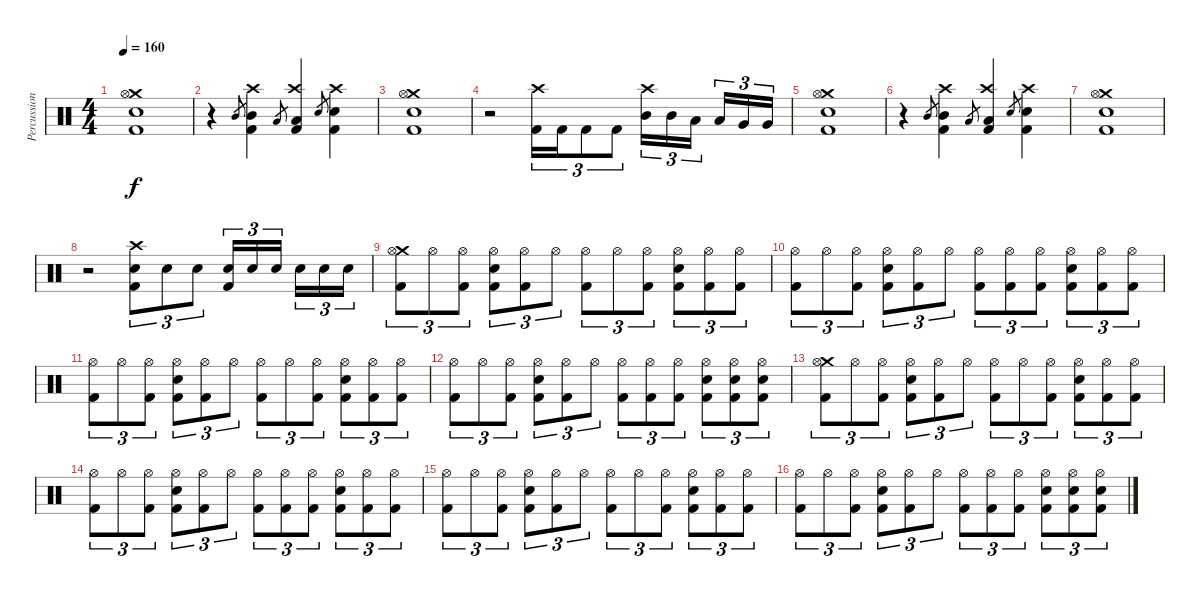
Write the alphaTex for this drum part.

\track ("Percussion" "Percussion") {instrument percussion}
\staff {score}
\articulation defaults
\ts (4 4)
\tempo 160
\clef neutral
\ks c
("Crash medium (hit)" "Hi-Hat (open)" "Electric Snare (hit)" "Kick (hit) 2").1{dy f} |
r.4 "Mid Tom (hit)".8{gr} ("Crash high (hit)" "Mid Tom (hit)" "Kick (hit) 2").4 "Low Tom (hit)".8{gr} ("Crash high (hit)" "Low Tom (hit)" "Kick (hit) 2").4 "Electric Snare (hit)".8{gr} ("Crash high (hit)" "Electric Snare (hit)" "Kick (hit) 2").4 |
("Crash medium (hit)" "Hi-Hat (open)" "Electric Snare (hit)" "Kick (hit) 2").1 |
r.2 ("Crash high (hit)" "Kick (hit) 2").16{tu (3 2)} "Kick (hit) 2".16{tu (3 2)} "Kick (hit) 2".8{tu (3 2)} "Kick (hit) 2".8{tu (3 2)} ("Crash high (hit)" "Mid Tom (hit)").16{tu (3 2)} "Mid Tom (hit)".16{tu (3 2)} "Low Tom (hit)".16{tu (3 2)} "Low Tom (hit)".16{tu (3 2)} "Very Low Tom (hit)".16{tu (3 2)} "Very Low Tom (hit)".16{tu (3 2)} |
("Crash medium (hit)" "Hi-Hat (open)" "Electric Snare (hit)" "Kick (hit) 2").1 |
r.4 "Mid Tom (hit)".8{gr} ("Crash high (hit)" "Mid Tom (hit)" "Kick (hit) 2").4 "Low Tom (hit)".8{gr} ("Crash high (hit)" "Low Tom (hit)" "Kick (hit) 2").4 "Electric Snare (hit)".8{gr} ("Crash high (hit)" "Electric Snare (hit)" "Kick (hit) 2").4 |
("Crash medium (hit)" "Hi-Hat (open)" "Electric Snare (hit)" "Kick (hit) 2").1 |
r.2 ("Crash high (hit)" "Electric Snare (hit)" "Kick (hit) 2").8{tu (3 2)} "Electric Snare (hit)".8{tu (3 2)} "Electric Snare (hit)".8{tu (3 2)} ("Electric Snare (hit)" "Kick (hit) 2").16{tu (3 2)} "Electric Snare (hit)".16{tu (3 2)} "Electric Snare (hit)".16{tu (3 2)} "Electric Snare (hit)".16{tu (3 2)} "Electric Snare (hit)".16{tu (3 2)} "Electric Snare (hit)".16{tu (3 2)} |
("Crash medium (hit)" "Hi-Hat (open)" "Kick (hit) 2").8{tu (3 2)} "Hi-Hat (open)".8{tu (3 2)} ("Hi-Hat (open)" "Kick (hit) 2").8{tu (3 2)} ("Hi-Hat (open)" "Electric Snare (hit)" "Kick (hit) 2").8{tu (3 2)} ("Hi-Hat (open)" "Kick (hit) 2").8{tu (3 2)} "Hi-Hat (open)".8{tu (3 2)} ("Hi-Hat (open)" "Kick (hit) 2").8{tu (3 2)} "Hi-Hat (open)".8{tu (3 2)} ("Hi-Hat (open)" "Kick (hit) 2").8{tu (3 2)} ("Hi-Hat (open)" "Electric Snare (hit)" "Kick (hit) 2").8{tu (3 2)} ("Hi-Hat (open)" "Kick (hit) 2").8{tu (3 2)} ("Hi-Hat (open)" "Kick (hit) 2").8{tu (3 2)} |
("Hi-Hat (open)" "Kick (hit) 2").8{tu (3 2)} "Hi-Hat (open)".8{tu (3 2)} ("Hi-Hat (open)" "Kick (hit) 2").8{tu (3 2)} ("Hi-Hat (open)" "Electric Snare (hit)" "Kick (hit) 2").8{tu (3 2)} ("Hi-Hat (open)" "Kick (hit) 2").8{tu (3 2)} "Hi-Hat (open)".8{tu (3 2)} ("Hi-Hat (open)" "Kick (hit) 2").8{tu (3 2)} ("Hi-Hat (open)" "Kick (hit) 2").8{tu (3 2)} ("Hi-Hat (open)" "Kick (hit) 2").8{tu (3 2)} ("Hi-Hat (open)" "Electric Snare (hit)" "Kick (hit) 2").8{tu (3 2)} ("Hi-Hat (open)" "Kick (hit) 2").8{tu (3 2)} ("Hi-Hat (open)" "Kick (hit) 2").8{tu (3 2)} |
("Hi-Hat (open)" "Kick (hit) 2").8{tu (3 2)} "Hi-Hat (open)".8{tu (3 2)} ("Hi-Hat (open)" "Kick (hit) 2").8{tu (3 2)} ("Hi-Hat (open)" "Electric Snare (hit)" "Kick (hit) 2").8{tu (3 2)} ("Hi-Hat (open)" "Kick (hit) 2").8{tu (3 2)} "Hi-Hat (open)".8{tu (3 2)} ("Hi-Hat (open)" "Kick (hit) 2").8{tu (3 2)} "Hi-Hat (open)".8{tu (3 2)} ("Hi-Hat (open)" "Kick (hit) 2").8{tu (3 2)} ("Hi-Hat (open)" "Electric Snare (hit)" "Kick (hit) 2").8{tu (3 2)} ("Hi-Hat (open)" "Kick (hit) 2").8{tu (3 2)} ("Hi-Hat (open)" "Kick (hit) 2").8{tu (3 2)} |
("Hi-Hat (open)" "Kick (hit) 2").8{tu (3 2)} "Hi-Hat (open)".8{tu (3 2)} ("Hi-Hat (open)" "Kick (hit) 2").8{tu (3 2)} ("Hi-Hat (open)" "Electric Snare (hit)" "Kick (hit) 2").8{tu (3 2)} ("Hi-Hat (open)" "Kick (hit) 2").8{tu (3 2)} "Hi-Hat (open)".8{tu (3 2)} ("Hi-Hat (open)" "Kick (hit) 2").8{tu (3 2)} ("Hi-Hat (open)" "Kick (hit) 2").8{tu (3 2)} ("Hi-Hat (open)" "Kick (hit) 2").8{tu (3 2)} ("Hi-Hat (open)" "Electric Snare (hit)" "Kick (hit) 2").8{tu (3 2)} ("Hi-Hat (open)" "Electric Snare (hit)" "Kick (hit) 2").8{tu (3 2)} ("Hi-Hat (open)" "Electric Snare (hit)" "Kick (hit) 2").8{tu (3 2)} |
("Crash medium (hit)" "Hi-Hat (open)" "Kick (hit) 2").8{tu (3 2)} "Hi-Hat (open)".8{tu (3 2)} ("Hi-Hat (open)" "Kick (hit) 2").8{tu (3 2)} ("Hi-Hat (open)" "Electric Snare (hit)" "Kick (hit) 2").8{tu (3 2)} ("Hi-Hat (open)" "Kick (hit) 2").8{tu (3 2)} "Hi-Hat (open)".8{tu (3 2)} ("Hi-Hat (open)" "Kick (hit) 2").8{tu (3 2)} "Hi-Hat (open)".8{tu (3 2)} ("Hi-Hat (open)" "Kick (hit) 2").8{tu (3 2)} ("Hi-Hat (open)" "Electric Snare (hit)" "Kick (hit) 2").8{tu (3 2)} ("Hi-Hat (open)" "Kick (hit) 2").8{tu (3 2)} ("Hi-Hat (open)" "Kick (hit) 2").8{tu (3 2)} |
("Hi-Hat (open)" "Kick (hit) 2").8{tu (3 2)} "Hi-Hat (open)".8{tu (3 2)} ("Hi-Hat (open)" "Kick (hit) 2").8{tu (3 2)} ("Hi-Hat (open)" "Electric Snare (hit)" "Kick (hit) 2").8{tu (3 2)} ("Hi-Hat (open)" "Kick (hit) 2").8{tu (3 2)} "Hi-Hat (open)".8{tu (3 2)} ("Hi-Hat (open)" "Kick (hit) 2").8{tu (3 2)} ("Hi-Hat (open)" "Kick (hit) 2").8{tu (3 2)} ("Hi-Hat (open)" "Kick (hit) 2").8{tu (3 2)} ("Hi-Hat (open)" "Electric Snare (hit)" "Kick (hit) 2").8{tu (3 2)} ("Hi-Hat (open)" "Kick (hit) 2").8{tu (3 2)} ("Hi-Hat (open)" "Kick (hit) 2").8{tu (3 2)} |
("Hi-Hat (open)" "Kick (hit) 2").8{tu (3 2)} "Hi-Hat (open)".8{tu (3 2)} ("Hi-Hat (open)" "Kick (hit) 2").8{tu (3 2)} ("Hi-Hat (open)" "Electric Snare (hit)" "Kick (hit) 2").8{tu (3 2)} ("Hi-Hat (open)" "Kick (hit) 2").8{tu (3 2)} "Hi-Hat (open)".8{tu (3 2)} ("Hi-Hat (open)" "Kick (hit) 2").8{tu (3 2)} "Hi-Hat (open)".8{tu (3 2)} ("Hi-Hat (open)" "Kick (hit) 2").8{tu (3 2)} ("Hi-Hat (open)" "Electric Snare (hit)" "Kick (hit) 2").8{tu (3 2)} ("Hi-Hat (open)" "Kick (hit) 2").8{tu (3 2)} ("Hi-Hat (open)" "Kick (hit) 2").8{tu (3 2)} |
("Hi-Hat (open)" "Kick (hit) 2").8{tu (3 2)} "Hi-Hat (open)".8{tu (3 2)} ("Hi-Hat (open)" "Kick (hit) 2").8{tu (3 2)} ("Hi-Hat (open)" "Electric Snare (hit)" "Kick (hit) 2").8{tu (3 2)} ("Hi-Hat (open)" "Kick (hit) 2").8{tu (3 2)} "Hi-Hat (open)".8{tu (3 2)} ("Hi-Hat (open)" "Kick (hit) 2").8{tu (3 2)} ("Hi-Hat (open)" "Kick (hit) 2").8{tu (3 2)} ("Hi-Hat (open)" "Kick (hit) 2").8{tu (3 2)} ("Hi-Hat (open)" "Electric Snare (hit)" "Kick (hit) 2").8{tu (3 2)} ("Hi-Hat (open)" "Electric Snare (hit)" "Kick (hit) 2").8{tu (3 2)} ("Hi-Hat (open)" "Electric Snare (hit)" "Kick (hit) 2").8{tu (3 2)}
